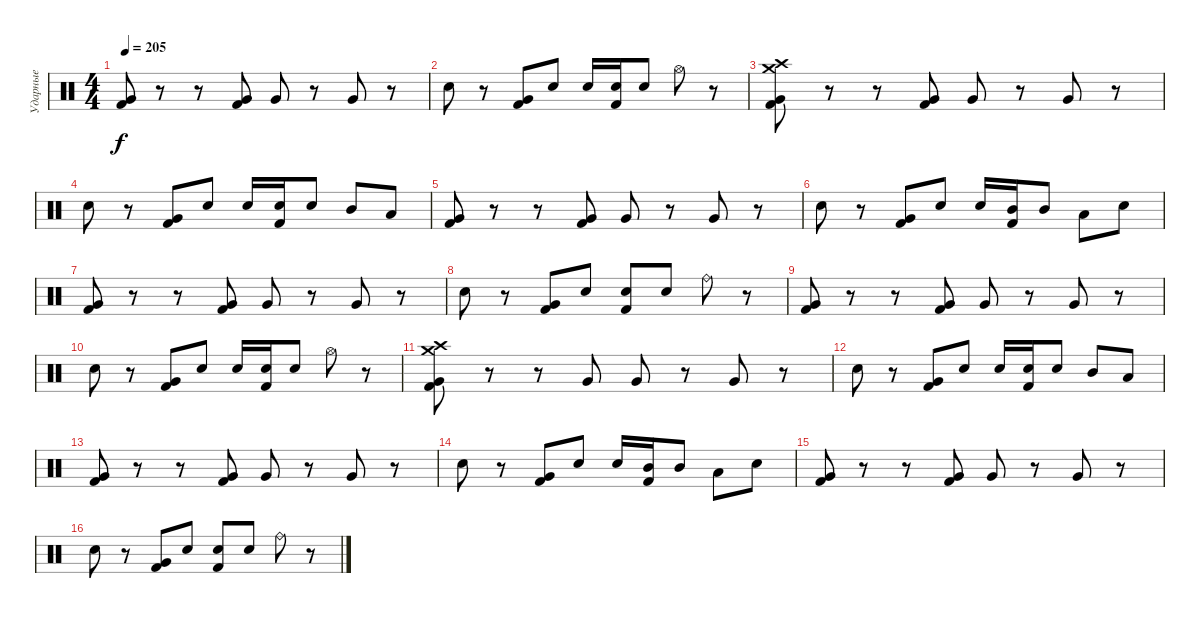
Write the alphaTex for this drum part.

\track ("Ударные" "Ударные") {instrument percussion}
\staff {score}
\articulation defaults
\ts (4 4)
\tempo 205
\clef neutral
\ks c
("Very Low Tom (hit)" "Kick (hit) 2").8{dy f} r.8 r.8 ("Very Low Tom (hit)" "Kick (hit) 2").8 "Very Low Tom (hit)".8 r.8 "Very Low Tom (hit)".8 r.8 |
"Electric Snare (hit)".8 r.8 ("Very Low Tom (hit)" "Kick (hit) 2").8 "Electric Snare (hit)".8 "Electric Snare (hit)".16 ("Electric Snare (hit)" "Kick (hit) 2").16 "Electric Snare (hit)".8 "Hi-Hat (open)".8 r.8 |
("Crash medium (hit)" "Crash high (hit)" "Very Low Tom (hit)" "Kick (hit) 2").8 r.8 r.8 ("Very Low Tom (hit)" "Kick (hit) 2").8 "Very Low Tom (hit)".8 r.8 "Very Low Tom (hit)".8 r.8 |
"Electric Snare (hit)".8 r.8 ("Very Low Tom (hit)" "Kick (hit) 2").8 "Electric Snare (hit)".8 "Electric Snare (hit)".16 ("Electric Snare (hit)" "Kick (hit) 2").16 "Electric Snare (hit)".8 "Mid Tom (hit)".8 "Low Tom (hit)".8 |
("Very Low Tom (hit)" "Kick (hit) 2").8 r.8 r.8 ("Very Low Tom (hit)" "Kick (hit) 2").8 "Very Low Tom (hit)".8 r.8 "Very Low Tom (hit)".8 r.8 |
"Electric Snare (hit)".8 r.8 ("Very Low Tom (hit)" "Kick (hit) 2").8 "Electric Snare (hit)".8 "Electric Snare (hit)".16 ("Mid Tom (hit)" "Kick (hit) 2").16 "Mid Tom (hit)".8 "Low Tom (hit)".8 "Electric Snare (hit)".8 |
("Very Low Tom (hit)" "Kick (hit) 2").8 r.8 r.8 ("Very Low Tom (hit)" "Kick (hit) 2").8 "Very Low Tom (hit)".8 r.8 "Very Low Tom (hit)".8 r.8 |
"Electric Snare (hit)".8 r.8 ("Very Low Tom (hit)" "Kick (hit) 2").8 "Electric Snare (hit)".8 ("Electric Snare (hit)" "Kick (hit) 2").8 "Electric Snare (hit)".8 "Ride (bell)".8 r.8 |
("Very Low Tom (hit)" "Kick (hit) 2").8 r.8 r.8 ("Very Low Tom (hit)" "Kick (hit) 2").8 "Very Low Tom (hit)".8 r.8 "Very Low Tom (hit)".8 r.8 |
"Electric Snare (hit)".8 r.8 ("Very Low Tom (hit)" "Kick (hit) 2").8 "Electric Snare (hit)".8 "Electric Snare (hit)".16 ("Electric Snare (hit)" "Kick (hit) 2").16 "Electric Snare (hit)".8 "Hi-Hat (open)".8 r.8 |
("Crash medium (hit)" "Crash high (hit)" "Very Low Tom (hit)" "Kick (hit) 2").8 r.8 r.8 "Very Low Tom (hit)".8 "Very Low Tom (hit)".8 r.8 "Very Low Tom (hit)".8 r.8 |
"Electric Snare (hit)".8 r.8 ("Very Low Tom (hit)" "Kick (hit) 2").8 "Electric Snare (hit)".8 "Electric Snare (hit)".16 ("Electric Snare (hit)" "Kick (hit) 2").16 "Electric Snare (hit)".8 "Mid Tom (hit)".8 "Low Tom (hit)".8 |
("Very Low Tom (hit)" "Kick (hit) 2").8 r.8 r.8 ("Very Low Tom (hit)" "Kick (hit) 2").8 "Very Low Tom (hit)".8 r.8 "Very Low Tom (hit)".8 r.8 |
"Electric Snare (hit)".8 r.8 ("Very Low Tom (hit)" "Kick (hit) 2").8 "Electric Snare (hit)".8 "Electric Snare (hit)".16 ("Mid Tom (hit)" "Kick (hit) 2").16 "Mid Tom (hit)".8 "Low Tom (hit)".8 "Electric Snare (hit)".8 |
("Very Low Tom (hit)" "Kick (hit) 2").8 r.8 r.8 ("Very Low Tom (hit)" "Kick (hit) 2").8 "Very Low Tom (hit)".8 r.8 "Very Low Tom (hit)".8 r.8 |
"Electric Snare (hit)".8 r.8 ("Very Low Tom (hit)" "Kick (hit) 2").8 "Electric Snare (hit)".8 ("Electric Snare (hit)" "Kick (hit) 2").8 "Electric Snare (hit)".8 "Ride (bell)".8 r.8
